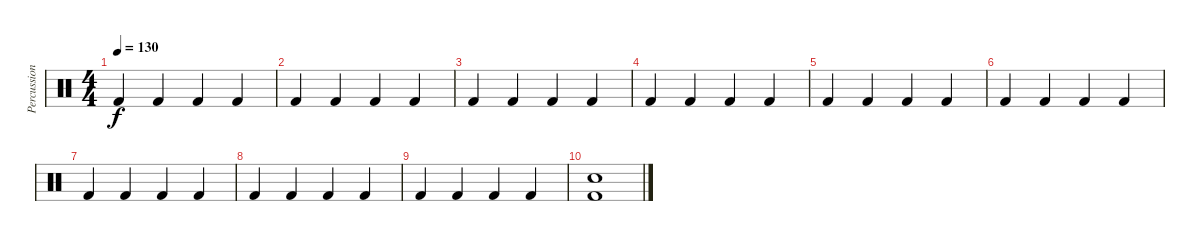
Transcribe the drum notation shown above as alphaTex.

\track ("Percussion" "Percussion") {instrument percussion}
\staff {score}
\articulation defaults
\ts (4 4)
\tempo 130
\clef neutral
\ks c "Kick (hit) 2".4{dy f} "Kick (hit) 2".4 "Kick (hit) 2".4 "Kick (hit) 2".4
|
"Kick (hit) 2".4 "Kick (hit) 2".4 "Kick (hit) 2".4 "Kick (hit) 2".4 |
"Kick (hit) 2".4 "Kick (hit) 2".4 "Kick (hit) 2".4 "Kick (hit) 2".4 |
"Kick (hit) 2".4 "Kick (hit) 2".4 "Kick (hit) 2".4 "Kick (hit) 2".4 |
"Kick (hit) 2".4 "Kick (hit) 2".4 "Kick (hit) 2".4 "Kick (hit) 2".4 |
"Kick (hit) 2".4 "Kick (hit) 2".4 "Kick (hit) 2".4 "Kick (hit) 2".4 |
"Kick (hit) 2".4 "Kick (hit) 2".4 "Kick (hit) 2".4 "Kick (hit) 2".4 |
"Kick (hit) 2".4 "Kick (hit) 2".4 "Kick (hit) 2".4 "Kick (hit) 2".4 |
"Kick (hit) 2".4 "Kick (hit) 2".4 "Kick (hit) 2".4 "Kick (hit) 2".4 |
("Electric Snare (hit)" "Kick (hit) 2").1
